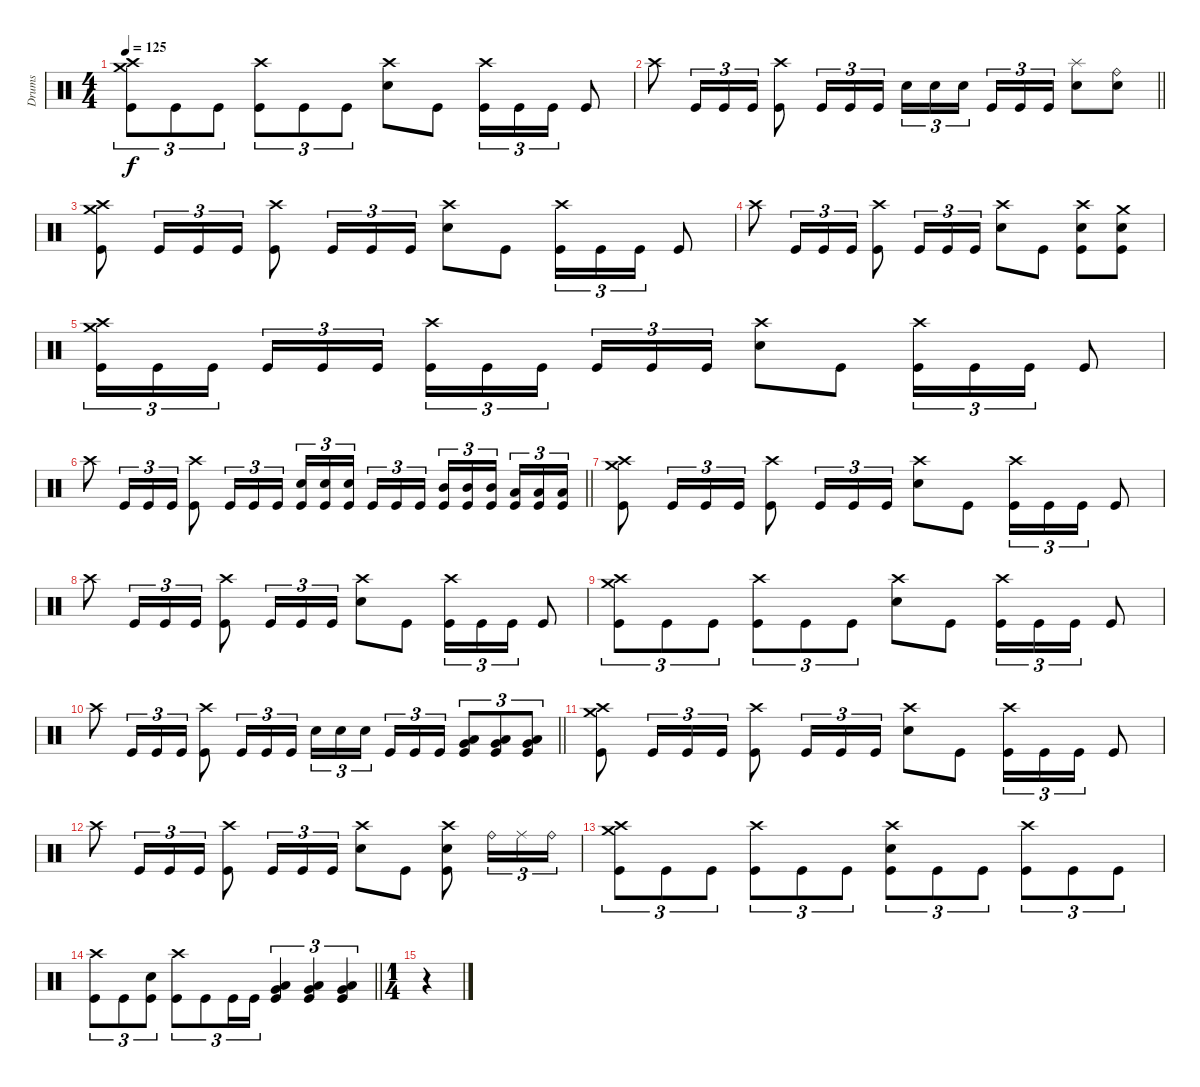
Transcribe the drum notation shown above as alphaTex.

\track ("Drums" "Drums") {instrument percussion}
\staff
\articulation defaults
\ts (4 4)
\tempo 125
\clef neutral
\ks c
("Crash high (hit)" "Crash medium (hit)" "Kick (hit)").8{tu (3 2) dy f} "Kick (hit)".8{tu (3 2)} "Kick (hit)".8{tu (3 2)} ("Crash high (hit)" "Kick (hit)").8{tu (3 2)} "Kick (hit)".8{tu (3 2)} "Kick (hit)".8{tu (3 2)} ("Crash high (hit)" "Electric Snare (hit)").8 "Kick (hit)".8 ("Crash high (hit)" "Kick (hit)").16{tu (3 2)} "Kick (hit)".16{tu (3 2)} "Kick (hit)".16{tu (3 2)} "Kick (hit)".8 |
\barLineRight lightlight "Crash high (hit)".8 "Kick (hit)".16{tu (3 2)} "Kick (hit)".16{tu (3 2)} "Kick (hit)".16{tu (3 2)}
("Crash high (hit)" "Kick (hit)").8 "Kick (hit)".16{tu (3 2)} "Kick (hit)".16{tu (3 2)} "Kick (hit)".16{tu (3 2)} "Electric Snare (hit)".16{tu (3 2)} "Electric Snare (hit)".16{tu (3 2)} "Electric Snare (hit)".16{tu (3 2) beam splitsecondary} "Kick (hit)".16{tu (3 2)} "Kick (hit)".16{tu (3 2)} "Kick (hit)".16{tu (3 2)} ("Splash (hit)" "Electric Snare (hit)").8 ("Ride (bell)" "Electric Snare (hit)").8 |
("Crash high (hit)" "Crash medium (hit)" "Kick (hit)").8 "Kick (hit)".16{tu (3 2)} "Kick (hit)".16{tu (3 2)} "Kick (hit)".16{tu (3 2)} ("Crash high (hit)" "Kick (hit)").8 "Kick (hit)".16{tu (3 2)} "Kick (hit)".16{tu (3 2)} "Kick (hit)".16{tu (3 2)} ("Crash high (hit)" "Electric Snare (hit)").8 "Kick (hit)".8 ("Crash high (hit)" "Kick (hit)").16{tu (3 2)} "Kick (hit)".16{tu (3 2)} "Kick (hit)".16{tu (3 2)} "Kick (hit)".8 |
"Crash high (hit)".8 "Kick (hit)".16{tu (3 2)} "Kick (hit)".16{tu (3 2)} "Kick (hit)".16{tu (3 2)} ("Crash high (hit)" "Kick (hit)").8 "Kick (hit)".16{tu (3 2)} "Kick (hit)".16{tu (3 2)} "Kick (hit)".16{tu (3 2)} ("Crash high (hit)" "Electric Snare (hit)").8 "Kick (hit)".8 ("Crash high (hit)" "Electric Snare (hit)" "Kick (hit)").8 ("Crash medium (hit)" "Electric Snare (hit)" "Kick (hit)").8 |
("Crash high (hit)" "Crash medium (hit)" "Kick (hit)").16{tu (3 2)} "Kick (hit)".16{tu (3 2)} "Kick (hit)".16{tu (3 2) beam splitsecondary} "Kick (hit)".16{tu (3 2)} "Kick (hit)".16{tu (3 2)} "Kick (hit)".16{tu (3 2)} ("Crash high (hit)" "Kick (hit)").16{tu (3 2)} "Kick (hit)".16{tu (3 2)} "Kick (hit)".16{tu (3 2) beam splitsecondary} "Kick (hit)".16{tu (3 2)} "Kick (hit)".16{tu (3 2)} "Kick (hit)".16{tu (3 2)} ("Crash high (hit)" "Electric Snare (hit)").8 "Kick (hit)".8 ("Crash high (hit)" "Kick (hit)").16{tu (3 2)} "Kick (hit)".16{tu (3 2)} "Kick (hit)".16{tu (3 2)} "Kick (hit)".8 |
\barLineRight lightlight "Crash high (hit)".8 "Kick (hit)".16{tu (3 2)} "Kick (hit)".16{tu (3 2)} "Kick (hit)".16{tu (3 2)}
("Crash high (hit)" "Kick (hit)").8 "Kick (hit)".16{tu (3 2)} "Kick (hit)".16{tu (3 2)} "Kick (hit)".16{tu (3 2)} ("Electric Snare (hit)" "Kick (hit)").16{tu (3 2)} ("Electric Snare (hit)" "Kick (hit)").16{tu (3 2)} ("Electric Snare (hit)" "Kick (hit)").16{tu (3 2) beam splitsecondary} "Kick (hit)".16{tu (3 2)} "Kick (hit)".16{tu (3 2)} "Kick (hit)".16{tu (3 2)} ("Mid Tom (hit)" "Kick (hit)").16{tu (3 2)} ("Mid Tom (hit)" "Kick (hit)").16{tu (3 2)} ("Mid Tom (hit)" "Kick (hit)").16{tu (3 2) beam splitsecondary} ("Low Tom (hit)" "Kick (hit)").16{tu (3 2)} ("Low Tom (hit)" "Kick (hit)").16{tu (3 2)} ("Low Tom (hit)" "Kick (hit)").16{tu (3 2)} |
("Crash high (hit)" "Crash medium (hit)" "Kick (hit)").8 "Kick (hit)".16{tu (3 2)} "Kick (hit)".16{tu (3 2)} "Kick (hit)".16{tu (3 2)} ("Crash high (hit)" "Kick (hit)").8 "Kick (hit)".16{tu (3 2)} "Kick (hit)".16{tu (3 2)} "Kick (hit)".16{tu (3 2)} ("Crash high (hit)" "Electric Snare (hit)").8 "Kick (hit)".8 ("Crash high (hit)" "Kick (hit)").16{tu (3 2)} "Kick (hit)".16{tu (3 2)} "Kick (hit)".16{tu (3 2)} "Kick (hit)".8 |
"Crash high (hit)".8 "Kick (hit)".16{tu (3 2)} "Kick (hit)".16{tu (3 2)} "Kick (hit)".16{tu (3 2)} ("Crash high (hit)" "Kick (hit)").8 "Kick (hit)".16{tu (3 2)} "Kick (hit)".16{tu (3 2)} "Kick (hit)".16{tu (3 2)} ("Crash high (hit)" "Electric Snare (hit)").8 "Kick (hit)".8 ("Crash high (hit)" "Kick (hit)").16{tu (3 2)} "Kick (hit)".16{tu (3 2)} "Kick (hit)".16{tu (3 2)} "Kick (hit)".8 |
("Crash high (hit)" "Crash medium (hit)" "Kick (hit)").8{tu (3 2)} "Kick (hit)".8{tu (3 2)} "Kick (hit)".8{tu (3 2)} ("Crash high (hit)" "Kick (hit)").8{tu (3 2)} "Kick (hit)".8{tu (3 2)} "Kick (hit)".8{tu (3 2)} ("Crash high (hit)" "Electric Snare (hit)").8 "Kick (hit)".8 ("Crash high (hit)" "Kick (hit)").16{tu (3 2)} "Kick (hit)".16{tu (3 2)} "Kick (hit)".16{tu (3 2)} "Kick (hit)".8 |
\barLineRight lightlight "Crash high (hit)".8 "Kick (hit)".16{tu (3 2)} "Kick (hit)".16{tu (3 2)} "Kick (hit)".16{tu (3 2)}
("Crash high (hit)" "Kick (hit)").8 "Kick (hit)".16{tu (3 2)} "Kick (hit)".16{tu (3 2)} "Kick (hit)".16{tu (3 2)} "Electric Snare (hit)".16{tu (3 2)} "Electric Snare (hit)".16{tu (3 2)} "Electric Snare (hit)".16{tu (3 2) beam splitsecondary} "Kick (hit)".16{tu (3 2)} "Kick (hit)".16{tu (3 2)} "Kick (hit)".16{tu (3 2)} ("Very Low Tom (hit)" "Low Floor Tom (hit)" "Kick (hit)").8{tu (3 2)} ("Very Low Tom (hit)" "Low Floor Tom (hit)" "Kick (hit)").8{tu (3 2)} ("Very Low Tom (hit)" "Low Floor Tom (hit)" "Kick (hit)").8{tu (3 2)} |
("Crash high (hit)" "Crash medium (hit)" "Kick (hit)").8 "Kick (hit)".16{tu (3 2)} "Kick (hit)".16{tu (3 2)} "Kick (hit)".16{tu (3 2)} ("Crash high (hit)" "Kick (hit)").8 "Kick (hit)".16{tu (3 2)} "Kick (hit)".16{tu (3 2)} "Kick (hit)".16{tu (3 2)} ("Crash high (hit)" "Electric Snare (hit)").8 "Kick (hit)".8 ("Crash high (hit)" "Kick (hit)").16{tu (3 2)} "Kick (hit)".16{tu (3 2)} "Kick (hit)".16{tu (3 2)} "Kick (hit)".8 |
"Crash high (hit)".8 "Kick (hit)".16{tu (3 2)} "Kick (hit)".16{tu (3 2)} "Kick (hit)".16{tu (3 2)} ("Crash high (hit)" "Kick (hit)").8 "Kick (hit)".16{tu (3 2)} "Kick (hit)".16{tu (3 2)} "Kick (hit)".16{tu (3 2)} ("Crash high (hit)" "Electric Snare (hit)").8 "Kick (hit)".8 ("Crash high (hit)" "Electric Snare (hit)" "Kick (hit)").8 "Ride (bell)".16{tu (3 2)} "Ride (middle)".16{tu (3 2)} "Ride (bell)".16{tu (3 2)} |
("Crash high (hit)" "Crash medium (hit)" "Kick (hit)").8{tu (3 2)} "Kick (hit)".8{tu (3 2)} "Kick (hit)".8{tu (3 2)} ("Crash high (hit)" "Kick (hit)").8{tu (3 2)} "Kick (hit)".8{tu (3 2)} "Kick (hit)".8{tu (3 2)} ("Crash high (hit)" "Electric Snare (hit)" "Kick (hit)").8{tu (3 2)} "Kick (hit)".8{tu (3 2)} "Kick (hit)".8{tu (3 2)} ("Crash high (hit)" "Kick (hit)").8{tu (3 2)} "Kick (hit)".8{tu (3 2)} "Kick (hit)".8{tu (3 2)} |
\barLineRight lightlight
("Crash high (hit)" "Kick (hit)").8{tu (3 2)} "Kick (hit)".8{tu (3 2)} ("Electric Snare (hit)" "Kick (hit)").8{tu (3 2)} ("Crash high (hit)" "Kick (hit)").8{tu (3 2)} "Kick (hit)".8{tu (3 2)} "Kick (hit)".16{tu (3 2)} "Kick (hit)".16{tu (3 2)} ("Very Low Tom (hit)" "Low Floor Tom (hit)" "Kick (hit)").4{tu (3 2)} ("Very Low Tom (hit)" "Low Floor Tom (hit)" "Kick (hit)").4{tu (3 2)} ("Very Low Tom (hit)" "Low Floor Tom (hit)" "Kick (hit)").4{tu (3 2)} |
\ts (1 4)
r.4
